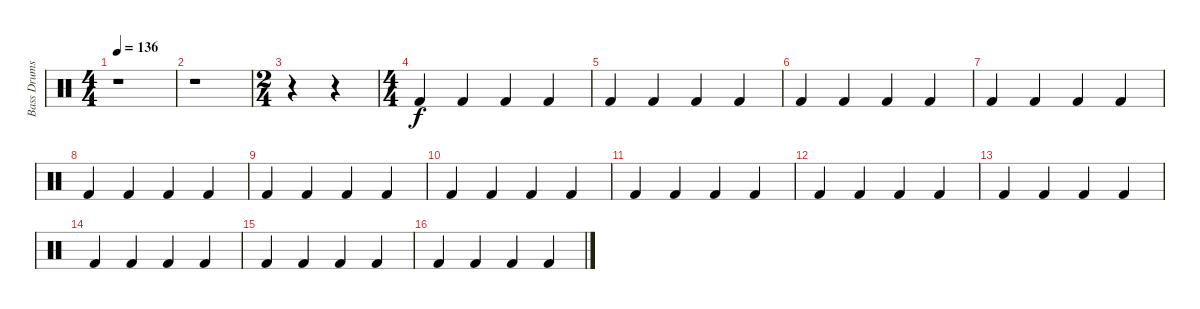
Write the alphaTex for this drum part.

\track ("Bass Drums" "Bass Drums") {instrument percussion}
\staff {score}
\articulation defaults
\ts (4 4)
\tempo 136
\clef neutral
\ks c
r.1{dy f} |
r.1 |
\ts (2 4)
r.4 r.4 |
\ts (4 4)
"Kick (hit) 2".4 "Kick (hit) 2".4 "Kick (hit) 2".4 "Kick (hit) 2".4 |
"Kick (hit) 2".4 "Kick (hit) 2".4 "Kick (hit) 2".4 "Kick (hit) 2".4 |
"Kick (hit) 2".4 "Kick (hit) 2".4 "Kick (hit) 2".4 "Kick (hit) 2".4 |
"Kick (hit) 2".4 "Kick (hit) 2".4 "Kick (hit) 2".4 "Kick (hit) 2".4 |
"Kick (hit) 2".4 "Kick (hit) 2".4 "Kick (hit) 2".4 "Kick (hit) 2".4 |
"Kick (hit) 2".4 "Kick (hit) 2".4 "Kick (hit) 2".4 "Kick (hit) 2".4 |
"Kick (hit) 2".4 "Kick (hit) 2".4 "Kick (hit) 2".4 "Kick (hit) 2".4 |
"Kick (hit) 2".4 "Kick (hit) 2".4 "Kick (hit) 2".4 "Kick (hit) 2".4 |
"Kick (hit) 2".4 "Kick (hit) 2".4 "Kick (hit) 2".4 "Kick (hit) 2".4 |
"Kick (hit) 2".4 "Kick (hit) 2".4 "Kick (hit) 2".4 "Kick (hit) 2".4 |
"Kick (hit) 2".4 "Kick (hit) 2".4 "Kick (hit) 2".4 "Kick (hit) 2".4 |
"Kick (hit) 2".4 "Kick (hit) 2".4 "Kick (hit) 2".4 "Kick (hit) 2".4 |
"Kick (hit) 2".4 "Kick (hit) 2".4 "Kick (hit) 2".4 "Kick (hit) 2".4
